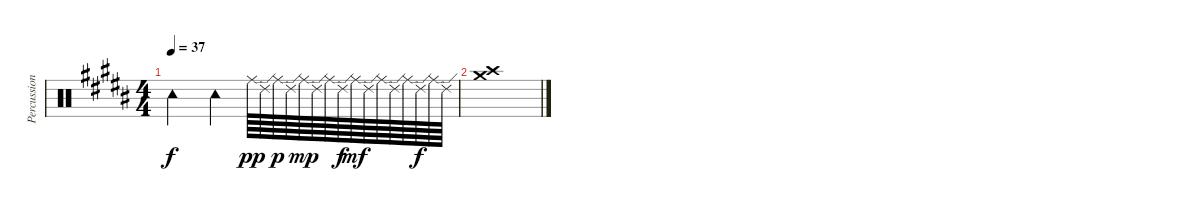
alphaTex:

\track ("Percussion" "Percussion") {instrument percussion}
\staff {score}
\articulation defaults
\ts (4 4)
\tempo 37
\clef neutral
\ks g#minor "Tambourine (hit)".2{dy f} "Tambourine (hit)".4 "Ride (middle)".64{dy pp} "Ride (edge) 2".64 "Ride (middle)".64{dy p} "Ride (edge) 2".64 "Ride (middle)".64{dy mp} "Ride (edge) 2".64 "Ride (middle)".64 "Ride (edge) 2".64{dy f} "Ride (middle)".64{dy mf} "Ride (edge) 2".64 "Ride (middle)".64 "Ride (edge) 2".64 "Ride (middle)".64 "Ride (edge) 2".64{dy f} "Ride (middle)".64 "Ride (edge) 2".64
|
("Crash medium (hit)" "Crash high (hit)").1
